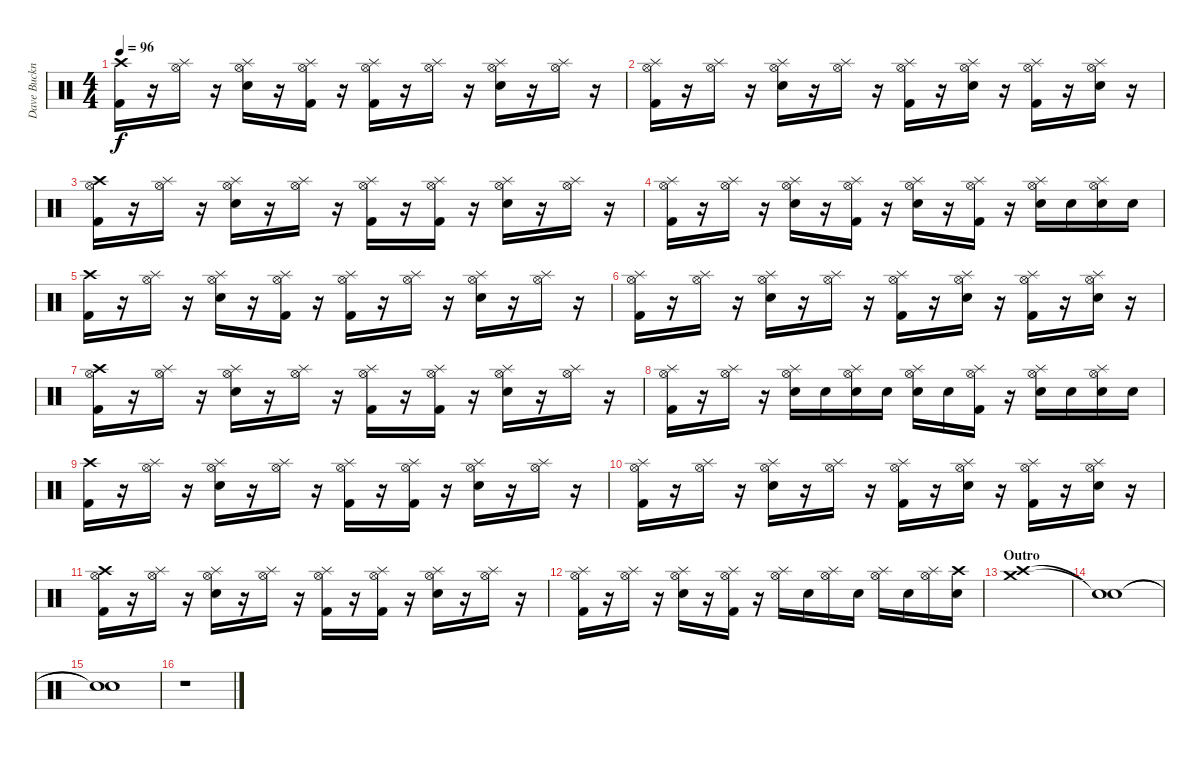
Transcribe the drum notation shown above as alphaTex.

\track ("Dave Buckner - Drums" "Dave Buckn") {instrument percussion}
\staff {score}
\articulation defaults
\ts (4 4)
\tempo 96
\clef neutral
\ks c
("Crash high (hit)" "Kick (hit) 2").16{dy f} r.16 ("Hi-Hat (open)" "Splash (hit)").16 r.16 ("Hi-Hat (open)" "Splash (hit)" "Snare (hit) 2").16 r.16 ("Hi-Hat (open)" "Splash (hit)" "Kick (hit) 2").16 r.16 ("Hi-Hat (open)" "Splash (hit)" "Kick (hit) 2").16 r.16 ("Hi-Hat (open)" "Splash (hit)").16 r.16 ("Hi-Hat (open)" "Splash (hit)" "Snare (hit) 2").16 r.16 ("Hi-Hat (open)" "Splash (hit)").16 r.16 |
("Hi-Hat (open)" "Splash (hit)" "Kick (hit) 2").16 r.16 ("Hi-Hat (open)" "Splash (hit)").16 r.16 ("Hi-Hat (open)" "Splash (hit)" "Snare (hit) 2").16 r.16 ("Hi-Hat (open)" "Splash (hit)").16 r.16 ("Hi-Hat (open)" "Splash (hit)" "Kick (hit) 2").16 r.16 ("Hi-Hat (open)" "Splash (hit)" "Snare (hit) 2").16 r.16 ("Hi-Hat (open)" "Splash (hit)" "Kick (hit) 2").16 r.16 ("Hi-Hat (open)" "Splash (hit)" "Snare (hit) 2").16 r.16 |
("Crash high (hit)" "Hi-Hat (open)" "Kick (hit) 2").16 r.16 ("Hi-Hat (open)" "Splash (hit)").16 r.16 ("Hi-Hat (open)" "Splash (hit)" "Snare (hit) 2").16 r.16 ("Hi-Hat (open)" "Splash (hit)").16 r.16 ("Hi-Hat (open)" "Splash (hit)" "Kick (hit) 2").16 r.16 ("Hi-Hat (open)" "Splash (hit)" "Kick (hit) 2").16 r.16 ("Hi-Hat (open)" "Splash (hit)" "Snare (hit) 2").16 r.16 ("Hi-Hat (open)" "Splash (hit)").16 r.16 |
("Hi-Hat (open)" "Splash (hit)" "Kick (hit) 2").16 r.16 ("Hi-Hat (open)" "Splash (hit)").16 r.16 ("Hi-Hat (open)" "Splash (hit)" "Snare (hit) 2").16 r.16 ("Hi-Hat (open)" "Splash (hit)" "Kick (hit) 2").16 r.16 ("Hi-Hat (open)" "Splash (hit)" "Snare (hit) 2").16 r.16 ("Hi-Hat (open)" "Splash (hit)" "Kick (hit) 2").16 r.16 ("Hi-Hat (open)" "Splash (hit)" "Snare (hit) 2").16 "Snare (hit) 2".16 ("Hi-Hat (open)" "Splash (hit)" "Snare (hit) 2").16 "Snare (hit) 2".16 |
("Crash high (hit)" "Kick (hit) 2").16 r.16 ("Hi-Hat (open)" "Splash (hit)").16 r.16 ("Hi-Hat (open)" "Splash (hit)" "Snare (hit) 2").16 r.16 ("Hi-Hat (open)" "Splash (hit)" "Kick (hit) 2").16 r.16 ("Hi-Hat (open)" "Splash (hit)" "Kick (hit) 2").16 r.16 ("Hi-Hat (open)" "Splash (hit)").16 r.16 ("Hi-Hat (open)" "Splash (hit)" "Snare (hit) 2").16 r.16 ("Hi-Hat (open)" "Splash (hit)").16 r.16 |
("Hi-Hat (open)" "Splash (hit)" "Kick (hit) 2").16 r.16 ("Hi-Hat (open)" "Splash (hit)").16 r.16 ("Hi-Hat (open)" "Splash (hit)" "Snare (hit) 2").16 r.16 ("Hi-Hat (open)" "Splash (hit)").16 r.16 ("Hi-Hat (open)" "Splash (hit)" "Kick (hit) 2").16 r.16 ("Hi-Hat (open)" "Splash (hit)" "Snare (hit) 2").16 r.16 ("Hi-Hat (open)" "Splash (hit)" "Kick (hit) 2").16 r.16 ("Hi-Hat (open)" "Splash (hit)" "Snare (hit) 2").16 r.16 |
("Crash high (hit)" "Hi-Hat (open)" "Kick (hit) 2").16 r.16 ("Hi-Hat (open)" "Splash (hit)").16 r.16 ("Hi-Hat (open)" "Splash (hit)" "Snare (hit) 2").16 r.16 ("Hi-Hat (open)" "Splash (hit)").16 r.16 ("Hi-Hat (open)" "Splash (hit)" "Kick (hit) 2").16 r.16 ("Hi-Hat (open)" "Splash (hit)" "Kick (hit) 2").16 r.16 ("Hi-Hat (open)" "Splash (hit)" "Snare (hit) 2").16 r.16 ("Hi-Hat (open)" "Splash (hit)").16 r.16 |
("Hi-Hat (open)" "Splash (hit)" "Kick (hit) 2").16 r.16 ("Hi-Hat (open)" "Splash (hit)").16 r.16 ("Hi-Hat (open)" "Splash (hit)" "Snare (hit) 2").16 "Snare (hit) 2".16 ("Hi-Hat (open)" "Splash (hit)" "Snare (hit) 2").16 "Snare (hit) 2".16 ("Hi-Hat (open)" "Splash (hit)" "Snare (hit) 2").16 "Snare (hit) 2".16 ("Hi-Hat (open)" "Splash (hit)" "Kick (hit) 2").16 r.16 ("Hi-Hat (open)" "Splash (hit)" "Snare (hit) 2").16 "Snare (hit) 2".16 ("Hi-Hat (open)" "Splash (hit)" "Snare (hit) 2").16 "Snare (hit) 2".16 |
("Crash high (hit)" "Kick (hit) 2").16 r.16 ("Hi-Hat (open)" "Splash (hit)").16 r.16 ("Hi-Hat (open)" "Splash (hit)" "Snare (hit) 2").16 r.16 ("Hi-Hat (open)" "Splash (hit)").16 r.16 ("Hi-Hat (open)" "Splash (hit)" "Kick (hit) 2").16 r.16 ("Hi-Hat (open)" "Splash (hit)" "Kick (hit) 2").16 r.16 ("Hi-Hat (open)" "Splash (hit)" "Snare (hit) 2").16 r.16 ("Hi-Hat (open)" "Splash (hit)").16 r.16 |
("Hi-Hat (open)" "Splash (hit)" "Kick (hit) 2").16 r.16 ("Hi-Hat (open)" "Splash (hit)").16 r.16 ("Hi-Hat (open)" "Splash (hit)" "Snare (hit) 2").16 r.16 ("Hi-Hat (open)" "Splash (hit)").16 r.16 ("Hi-Hat (open)" "Splash (hit)" "Kick (hit) 2").16 r.16 ("Hi-Hat (open)" "Splash (hit)" "Snare (hit) 2").16 r.16 ("Hi-Hat (open)" "Splash (hit)" "Kick (hit) 2").16 r.16 ("Hi-Hat (open)" "Splash (hit)" "Snare (hit) 2").16 r.16 |
("Crash high (hit)" "Hi-Hat (open)" "Kick (hit) 2").16 r.16 ("Hi-Hat (open)" "Splash (hit)").16 r.16 ("Hi-Hat (open)" "Splash (hit)" "Snare (hit) 2").16 r.16 ("Hi-Hat (open)" "Splash (hit)").16 r.16 ("Hi-Hat (open)" "Splash (hit)" "Kick (hit) 2").16 r.16 ("Hi-Hat (open)" "Splash (hit)" "Kick (hit) 2").16 r.16 ("Hi-Hat (open)" "Splash (hit)" "Snare (hit) 2").16 r.16 ("Hi-Hat (open)" "Splash (hit)").16 r.16 |
("Hi-Hat (open)" "Splash (hit)" "Kick (hit) 2").16 r.16 ("Hi-Hat (open)" "Splash (hit)").16 r.16 ("Hi-Hat (open)" "Splash (hit)" "Snare (hit) 2").16 r.16 ("Hi-Hat (open)" "Splash (hit)" "Kick (hit) 2").16 r.16 ("Hi-Hat (open)" "Splash (hit)").16 "Snare (hit) 2".16 ("Hi-Hat (open)" "Splash (hit)").16 "Snare (hit) 2".16 ("Hi-Hat (open)" "Splash (hit)").16 "Snare (hit) 2".16 ("Hi-Hat (open)" "Splash (hit)").16 ("Crash high (hit)" "Snare (hit) 2").16 |
\section ("" "Outro")
("Crash high (hit)" "Crash medium (hit)").1 |
("Snare (hit)"{t} "Snare (hit)"{t}).1 |
("Snare (hit)"{t} "Snare (hit)"{t}).1 |
r.1
